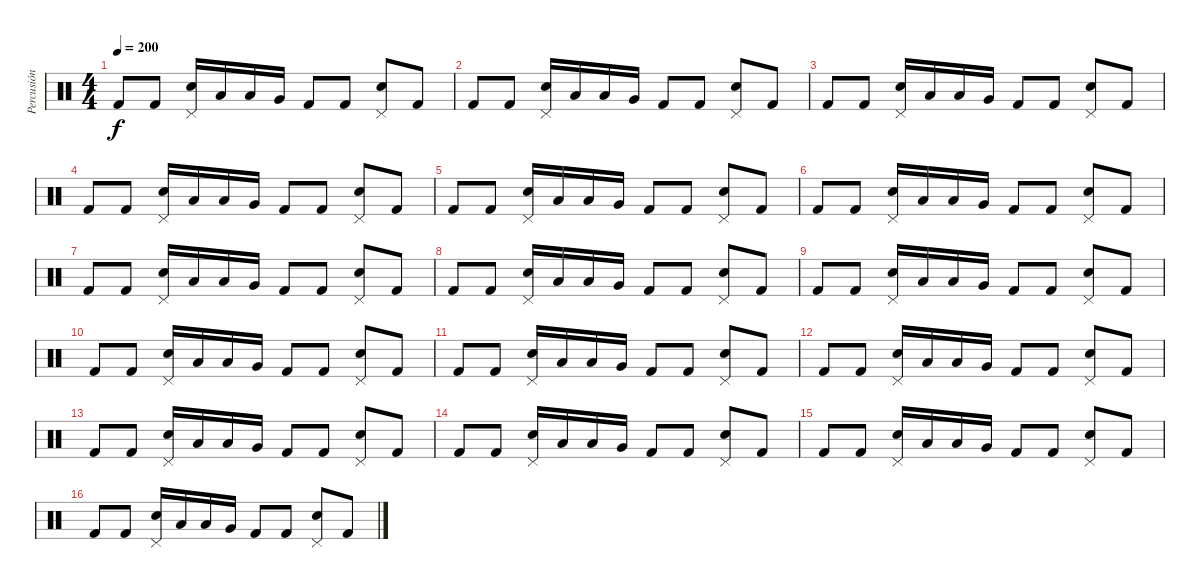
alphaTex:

\track ("Percusión" "Percusión") {instrument percussion}
\staff {score}
\articulation defaults
\ts (4 4)
\tempo 200
\clef neutral
\ks c "Kick (hit) 2".8{dy f} "Kick (hit) 2".8
("Electric Snare (hit)" "Pedal Hi-Hat (hit)").16 "Low Tom (hit)".16 "Low Tom (hit)".16 "Very Low Tom (hit)".16 "Kick (hit) 2".8 "Kick (hit) 2".8 ("Electric Snare (hit)" "Pedal Hi-Hat (hit)").8 "Kick (hit) 2".8 |
"Kick (hit) 2".8 "Kick (hit) 2".8 ("Electric Snare (hit)" "Pedal Hi-Hat (hit)").16 "Low Tom (hit)".16 "Low Tom (hit)".16 "Very Low Tom (hit)".16 "Kick (hit) 2".8 "Kick (hit) 2".8 ("Electric Snare (hit)" "Pedal Hi-Hat (hit)").8 "Kick (hit) 2".8 |
"Kick (hit) 2".8 "Kick (hit) 2".8 ("Electric Snare (hit)" "Pedal Hi-Hat (hit)").16 "Low Tom (hit)".16 "Low Tom (hit)".16 "Very Low Tom (hit)".16 "Kick (hit) 2".8 "Kick (hit) 2".8 ("Electric Snare (hit)" "Pedal Hi-Hat (hit)").8 "Kick (hit) 2".8 |
"Kick (hit) 2".8 "Kick (hit) 2".8 ("Electric Snare (hit)" "Pedal Hi-Hat (hit)").16 "Low Tom (hit)".16 "Low Tom (hit)".16 "Very Low Tom (hit)".16 "Kick (hit) 2".8 "Kick (hit) 2".8 ("Electric Snare (hit)" "Pedal Hi-Hat (hit)").8 "Kick (hit) 2".8 |
"Kick (hit) 2".8 "Kick (hit) 2".8 ("Electric Snare (hit)" "Pedal Hi-Hat (hit)").16 "Low Tom (hit)".16 "Low Tom (hit)".16 "Very Low Tom (hit)".16 "Kick (hit) 2".8 "Kick (hit) 2".8 ("Electric Snare (hit)" "Pedal Hi-Hat (hit)").8 "Kick (hit) 2".8 |
"Kick (hit) 2".8 "Kick (hit) 2".8 ("Electric Snare (hit)" "Pedal Hi-Hat (hit)").16 "Low Tom (hit)".16 "Low Tom (hit)".16 "Very Low Tom (hit)".16 "Kick (hit) 2".8 "Kick (hit) 2".8 ("Electric Snare (hit)" "Pedal Hi-Hat (hit)").8 "Kick (hit) 2".8 |
"Kick (hit) 2".8 "Kick (hit) 2".8 ("Electric Snare (hit)" "Pedal Hi-Hat (hit)").16 "Low Tom (hit)".16 "Low Tom (hit)".16 "Very Low Tom (hit)".16 "Kick (hit) 2".8 "Kick (hit) 2".8 ("Electric Snare (hit)" "Pedal Hi-Hat (hit)").8 "Kick (hit) 2".8 |
"Kick (hit) 2".8 "Kick (hit) 2".8 ("Electric Snare (hit)" "Pedal Hi-Hat (hit)").16 "Low Tom (hit)".16 "Low Tom (hit)".16 "Very Low Tom (hit)".16 "Kick (hit) 2".8 "Kick (hit) 2".8 ("Electric Snare (hit)" "Pedal Hi-Hat (hit)").8 "Kick (hit) 2".8 |
"Kick (hit) 2".8 "Kick (hit) 2".8 ("Electric Snare (hit)" "Pedal Hi-Hat (hit)").16 "Low Tom (hit)".16 "Low Tom (hit)".16 "Very Low Tom (hit)".16 "Kick (hit) 2".8 "Kick (hit) 2".8 ("Electric Snare (hit)" "Pedal Hi-Hat (hit)").8 "Kick (hit) 2".8 |
"Kick (hit) 2".8 "Kick (hit) 2".8 ("Electric Snare (hit)" "Pedal Hi-Hat (hit)").16 "Low Tom (hit)".16 "Low Tom (hit)".16 "Very Low Tom (hit)".16 "Kick (hit) 2".8 "Kick (hit) 2".8 ("Electric Snare (hit)" "Pedal Hi-Hat (hit)").8 "Kick (hit) 2".8 |
"Kick (hit) 2".8 "Kick (hit) 2".8 ("Electric Snare (hit)" "Pedal Hi-Hat (hit)").16 "Low Tom (hit)".16 "Low Tom (hit)".16 "Very Low Tom (hit)".16 "Kick (hit) 2".8 "Kick (hit) 2".8 ("Electric Snare (hit)" "Pedal Hi-Hat (hit)").8 "Kick (hit) 2".8 |
"Kick (hit) 2".8 "Kick (hit) 2".8 ("Electric Snare (hit)" "Pedal Hi-Hat (hit)").16 "Low Tom (hit)".16 "Low Tom (hit)".16 "Very Low Tom (hit)".16 "Kick (hit) 2".8 "Kick (hit) 2".8 ("Electric Snare (hit)" "Pedal Hi-Hat (hit)").8 "Kick (hit) 2".8 |
"Kick (hit) 2".8 "Kick (hit) 2".8 ("Electric Snare (hit)" "Pedal Hi-Hat (hit)").16 "Low Tom (hit)".16 "Low Tom (hit)".16 "Very Low Tom (hit)".16 "Kick (hit) 2".8 "Kick (hit) 2".8 ("Electric Snare (hit)" "Pedal Hi-Hat (hit)").8 "Kick (hit) 2".8 |
"Kick (hit) 2".8 "Kick (hit) 2".8 ("Electric Snare (hit)" "Pedal Hi-Hat (hit)").16 "Low Tom (hit)".16 "Low Tom (hit)".16 "Very Low Tom (hit)".16 "Kick (hit) 2".8 "Kick (hit) 2".8 ("Electric Snare (hit)" "Pedal Hi-Hat (hit)").8 "Kick (hit) 2".8 |
"Kick (hit) 2".8 "Kick (hit) 2".8 ("Electric Snare (hit)" "Pedal Hi-Hat (hit)").16 "Low Tom (hit)".16 "Low Tom (hit)".16 "Very Low Tom (hit)".16 "Kick (hit) 2".8 "Kick (hit) 2".8 ("Electric Snare (hit)" "Pedal Hi-Hat (hit)").8 "Kick (hit) 2".8 |
"Kick (hit) 2".8 "Kick (hit) 2".8 ("Electric Snare (hit)" "Pedal Hi-Hat (hit)").16 "Low Tom (hit)".16 "Low Tom (hit)".16 "Very Low Tom (hit)".16 "Kick (hit) 2".8 "Kick (hit) 2".8 ("Electric Snare (hit)" "Pedal Hi-Hat (hit)").8 "Kick (hit) 2".8
